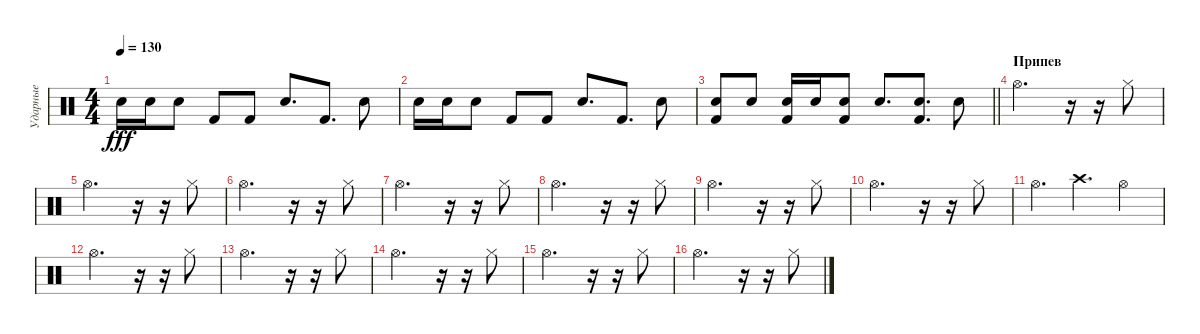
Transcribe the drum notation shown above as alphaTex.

\track ("Ударные" "Ударные") {instrument percussion}
\staff {score}
\articulation defaults
\ts (4 4)
\tempo 130
\clef neutral
\ks c "Snare (hit) 2".16{dy fff} "Snare (hit) 2".16 "Snare (hit) 2".8 "Kick (hit) 2".8 "Kick (hit) 2".8 "Snare (hit) 2".8{d} "Kick (hit) 2".8{d} "Snare (hit) 2".8
|
"Snare (hit) 2".16 "Snare (hit) 2".16 "Snare (hit) 2".8 "Kick (hit) 2".8 "Kick (hit) 2".8 "Snare (hit) 2".8{d} "Kick (hit) 2".8{d} "Snare (hit) 2".8 |
\barLineRight lightlight
("Snare (hit) 2" "Kick (hit) 2").8 "Snare (hit) 2".8 ("Snare (hit) 2" "Kick (hit) 2").16 "Snare (hit) 2".16 ("Snare (hit) 2" "Kick (hit) 2").8 "Snare (hit) 2".8{d} ("Snare (hit) 2" "Kick (hit) 2").8{d} "Snare (hit) 2".8 |
\section ("" "Припев")
"Hi-Hat (open)".2{d} r.16 r.16 "Hi-Hat (closed)".8 |
"Hi-Hat (open)".2{d} r.16 r.16 "Hi-Hat (closed)".8 |
"Hi-Hat (open)".2{d} r.16 r.16 "Hi-Hat (closed)".8 |
"Hi-Hat (open)".2{d} r.16 r.16 "Hi-Hat (closed)".8 |
"Hi-Hat (open)".2{d} r.16 r.16 "Hi-Hat (closed)".8 |
"Hi-Hat (open)".2{d} r.16 r.16 "Hi-Hat (closed)".8 |
"Hi-Hat (open)".2{d} r.16 r.16 "Hi-Hat (closed)".8 |
"Hi-Hat (open)".4{d} "Crash high (hit)".4{d} "Hi-Hat (open)".4 |
"Hi-Hat (open)".2{d} r.16 r.16 "Hi-Hat (closed)".8 |
"Hi-Hat (open)".2{d} r.16 r.16 "Hi-Hat (closed)".8 |
"Hi-Hat (open)".2{d} r.16 r.16 "Hi-Hat (closed)".8 |
"Hi-Hat (open)".2{d} r.16 r.16 "Hi-Hat (closed)".8 |
"Hi-Hat (open)".2{d} r.16 r.16 "Hi-Hat (closed)".8
